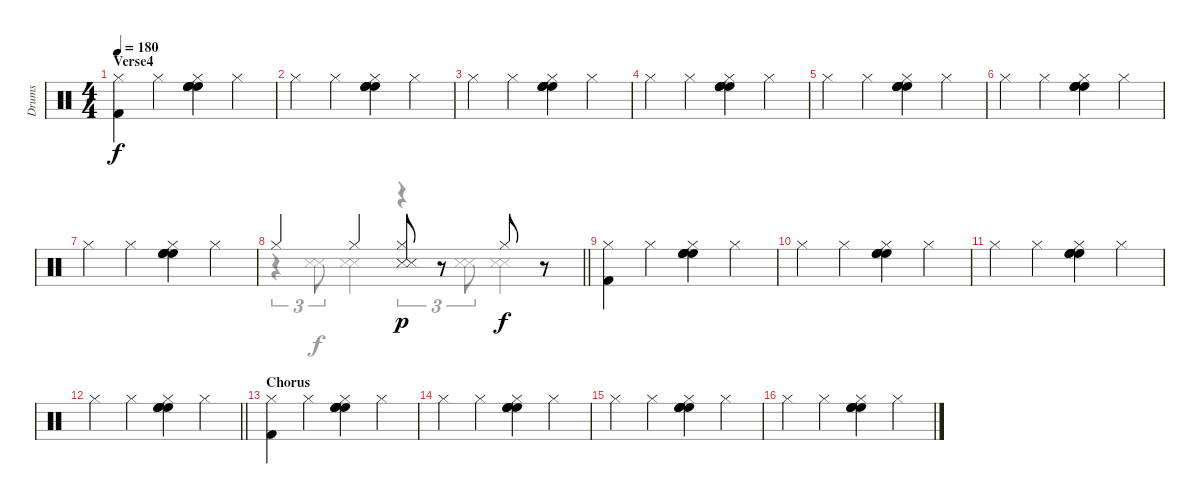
\track ("Drums" "Drums") {instrument percussion}
\staff {score}
\articulation defaults
\voice
\ts (4 4)
\section ("" "Verse4")
\tempo 180
\clef neutral
\ks c
("Kick (hit) 2" "Hi-Hat (closed)").4{dy f} "Hi-Hat (closed)".4 ("High Floor Tom (hit)" "High Floor Tom (hit)" "High Floor Tom (hit)" "High Floor Tom (hit)" "Hi-Hat (closed)").4 "Hi-Hat (closed)".4 |
"Hi-Hat (closed)".4 "Hi-Hat (closed)".4 ("High Floor Tom (hit)" "High Floor Tom (hit)" "High Floor Tom (hit)" "High Floor Tom (hit)" "Hi-Hat (closed)").4 "Hi-Hat (closed)".4 |
"Hi-Hat (closed)".4 "Hi-Hat (closed)".4 ("High Floor Tom (hit)" "High Floor Tom (hit)" "High Floor Tom (hit)" "High Floor Tom (hit)" "Hi-Hat (closed)").4 "Hi-Hat (closed)".4 |
"Hi-Hat (closed)".4 "Hi-Hat (closed)".4 ("High Floor Tom (hit)" "High Floor Tom (hit)" "High Floor Tom (hit)" "High Floor Tom (hit)" "Hi-Hat (closed)").4 "Hi-Hat (closed)".4 |
"Hi-Hat (closed)".4 "Hi-Hat (closed)".4 ("High Floor Tom (hit)" "High Floor Tom (hit)" "High Floor Tom (hit)" "High Floor Tom (hit)" "Hi-Hat (closed)").4 "Hi-Hat (closed)".4 |
"Hi-Hat (closed)".4 "Hi-Hat (closed)".4 ("High Floor Tom (hit)" "High Floor Tom (hit)" "High Floor Tom (hit)" "High Floor Tom (hit)" "Hi-Hat (closed)").4 "Hi-Hat (closed)".4 |
"Hi-Hat (closed)".4 "Hi-Hat (closed)".4 ("High Floor Tom (hit)" "High Floor Tom (hit)" "High Floor Tom (hit)" "High Floor Tom (hit)" "Hi-Hat (closed)").4 "Hi-Hat (closed)".4 |
\barLineRight lightlight "Hi-Hat (closed)".4 "Hi-Hat (closed)".4
("Snare (side stick) 3" "Snare (side stick) 3" "Hi-Hat (closed)").8{dy p} r.8 "Hi-Hat (closed)".8{dy f} r.8 |
("Kick (hit) 2" "Hi-Hat (closed)").4 "Hi-Hat (closed)".4 ("High Floor Tom (hit)" "High Floor Tom (hit)" "High Floor Tom (hit)" "High Floor Tom (hit)" "Hi-Hat (closed)").4 "Hi-Hat (closed)".4 |
"Hi-Hat (closed)".4 "Hi-Hat (closed)".4 ("High Floor Tom (hit)" "High Floor Tom (hit)" "High Floor Tom (hit)" "High Floor Tom (hit)" "Hi-Hat (closed)").4 "Hi-Hat (closed)".4 |
"Hi-Hat (closed)".4 "Hi-Hat (closed)".4 ("High Floor Tom (hit)" "High Floor Tom (hit)" "High Floor Tom (hit)" "High Floor Tom (hit)" "Hi-Hat (closed)").4 "Hi-Hat (closed)".4 |
\barLineRight lightlight "Hi-Hat (closed)".4 "Hi-Hat (closed)".4
("High Floor Tom (hit)" "High Floor Tom (hit)" "High Floor Tom (hit)" "High Floor Tom (hit)" "Hi-Hat (closed)").4 "Hi-Hat (closed)".4 |
\section ("" "Chorus")
("Kick (hit) 2" "Hi-Hat (closed)").4 "Hi-Hat (closed)".4 ("High Floor Tom (hit)" "High Floor Tom (hit)" "High Floor Tom (hit)" "High Floor Tom (hit)" "Hi-Hat (closed)").4 "Hi-Hat (closed)".4 |
"Hi-Hat (closed)".4 "Hi-Hat (closed)".4 ("High Floor Tom (hit)" "High Floor Tom (hit)" "High Floor Tom (hit)" "High Floor Tom (hit)" "Hi-Hat (closed)").4 "Hi-Hat (closed)".4 |
"Hi-Hat (closed)".4 "Hi-Hat (closed)".4 ("High Floor Tom (hit)" "High Floor Tom (hit)" "High Floor Tom (hit)" "High Floor Tom (hit)" "Hi-Hat (closed)").4 "Hi-Hat (closed)".4 |
"Hi-Hat (closed)".4 "Hi-Hat (closed)".4 ("High Floor Tom (hit)" "High Floor Tom (hit)" "High Floor Tom (hit)" "High Floor Tom (hit)" "Hi-Hat (closed)").4 "Hi-Hat (closed)".4
\voice
\clef neutral
\ottava regular
\simile none
\ks c
|
|
|
|
|
|
|
\barLineRight lightlight
r.4{tu (3 2)} ("Snare (side stick) 3" "Snare (side stick) 3").8{tu (3 2)} ("Snare (side stick) 3" "Snare (side stick) 3").4 r.4{tu (3 2)} ("Snare (side stick) 3" "Snare (side stick) 3").8{tu (3 2)} ("Snare (side stick) 3" "Snare (side stick) 3").4 |
|
|
|
\barLineRight lightlight
|
|
|
|
